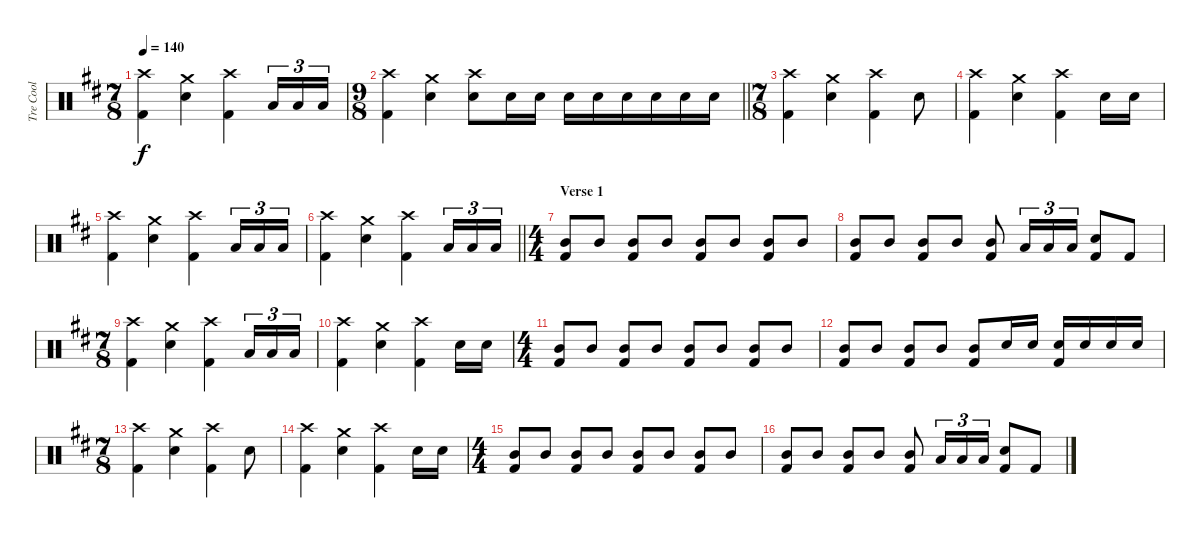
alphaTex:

\track ("Tre Cool" "Tre Cool") {instrument percussion}
\staff {score}
\articulation defaults
\ts (7 8)
\tempo 140
\clef neutral
\ks d
("Crash high (hit)" "Kick (hit) 2").4{dy f} ("Crash medium (hit)" "Electric Snare (hit)").4 ("Crash high (hit)" "Kick (hit) 2").4 "Low Tom (hit)".16{tu (3 2)} "Low Tom (hit)".16{tu (3 2)} "Low Tom (hit)".16{tu (3 2)} |
\ts (9 8)
\barLineRight lightlight
("Crash high (hit)" "Kick (hit) 2").4 ("Crash medium (hit)" "Electric Snare (hit)").4 ("Crash high (hit)" "Electric Snare (hit)").8 "Electric Snare (hit)".16 "Electric Snare (hit)".16 "Electric Snare (hit)".16 "Electric Snare (hit)".16 "Electric Snare (hit)".16 "Electric Snare (hit)".16 "Electric Snare (hit)".16 "Electric Snare (hit)".16 |
\ts (7 8)
("Crash high (hit)" "Kick (hit) 2").4 ("Crash medium (hit)" "Electric Snare (hit)").4 ("Crash high (hit)" "Kick (hit) 2").4 "Electric Snare (hit)".8 |
("Crash high (hit)" "Kick (hit) 2").4 ("Crash medium (hit)" "Electric Snare (hit)").4 ("Crash high (hit)" "Kick (hit) 2").4 "Electric Snare (hit)".16 "Electric Snare (hit)".16 |
("Crash high (hit)" "Kick (hit) 2").4 ("Crash medium (hit)" "Electric Snare (hit)").4 ("Crash high (hit)" "Kick (hit) 2").4 "Low Tom (hit)".16{tu (3 2)} "Low Tom (hit)".16{tu (3 2)} "Low Tom (hit)".16{tu (3 2)} |
\barLineRight lightlight
("Crash high (hit)" "Kick (hit) 2").4 ("Crash medium (hit)" "Electric Snare (hit)").4 ("Crash high (hit)" "Kick (hit) 2").4 "Low Tom (hit)".16{tu (3 2)} "Low Tom (hit)".16{tu (3 2)} "Low Tom (hit)".16{tu (3 2)} |
\ts (4 4)
\section ("" "Verse 1")
("Mid Tom (hit)" "Kick (hit) 2").8 "Mid Tom (hit)".8 ("Mid Tom (hit)" "Kick (hit) 2").8 "Mid Tom (hit)".8 ("Mid Tom (hit)" "Kick (hit) 2").8 "Mid Tom (hit)".8 ("Mid Tom (hit)" "Kick (hit) 2").8 "Mid Tom (hit)".8 |
("Mid Tom (hit)" "Kick (hit) 2").8 "Mid Tom (hit)".8 ("Mid Tom (hit)" "Kick (hit) 2").8 "Mid Tom (hit)".8 ("Mid Tom (hit)" "Kick (hit) 2").8 "Low Tom (hit)".16{tu (3 2)} "Low Tom (hit)".16{tu (3 2)} "Low Tom (hit)".16{tu (3 2)} ("Electric Snare (hit)" "Kick (hit) 2").8 "Kick (hit) 2".8 |
\ts (7 8)
("Crash high (hit)" "Kick (hit) 2").4 ("Crash medium (hit)" "Electric Snare (hit)").4 ("Crash high (hit)" "Kick (hit) 2").4 "Low Tom (hit)".16{tu (3 2)} "Low Tom (hit)".16{tu (3 2)} "Low Tom (hit)".16{tu (3 2)} |
("Crash high (hit)" "Kick (hit) 2").4 ("Crash medium (hit)" "Electric Snare (hit)").4 ("Crash high (hit)" "Kick (hit) 2").4 "Electric Snare (hit)".16 "Electric Snare (hit)".16 |
\ts (4 4)
("Mid Tom (hit)" "Kick (hit) 2").8 "Mid Tom (hit)".8 ("Mid Tom (hit)" "Kick (hit) 2").8 "Mid Tom (hit)".8 ("Mid Tom (hit)" "Kick (hit) 2").8 "Mid Tom (hit)".8 ("Mid Tom (hit)" "Kick (hit) 2").8 "Mid Tom (hit)".8 |
("Mid Tom (hit)" "Kick (hit) 2").8 "Mid Tom (hit)".8 ("Mid Tom (hit)" "Kick (hit) 2").8 "Mid Tom (hit)".8 ("Mid Tom (hit)" "Kick (hit) 2").8 "Electric Snare (hit)".16 "Electric Snare (hit)".16 ("Electric Snare (hit)" "Kick (hit) 2").16 "Electric Snare (hit)".16 "Electric Snare (hit)".16 "Electric Snare (hit)".16 |
\ts (7 8)
("Crash high (hit)" "Kick (hit) 2").4 ("Crash medium (hit)" "Electric Snare (hit)").4 ("Crash high (hit)" "Kick (hit) 2").4 "Electric Snare (hit)".8 |
("Crash high (hit)" "Kick (hit) 2").4 ("Crash medium (hit)" "Electric Snare (hit)").4 ("Crash high (hit)" "Kick (hit) 2").4 "Electric Snare (hit)".16 "Electric Snare (hit)".16 |
\ts (4 4)
("Mid Tom (hit)" "Kick (hit) 2").8 "Mid Tom (hit)".8 ("Mid Tom (hit)" "Kick (hit) 2").8 "Mid Tom (hit)".8 ("Mid Tom (hit)" "Kick (hit) 2").8 "Mid Tom (hit)".8 ("Mid Tom (hit)" "Kick (hit) 2").8 "Mid Tom (hit)".8 |
("Mid Tom (hit)" "Kick (hit) 2").8 "Mid Tom (hit)".8 ("Mid Tom (hit)" "Kick (hit) 2").8 "Mid Tom (hit)".8 ("Mid Tom (hit)" "Kick (hit) 2").8 "Low Tom (hit)".16{tu (3 2)} "Low Tom (hit)".16{tu (3 2)} "Low Tom (hit)".16{tu (3 2)} ("Electric Snare (hit)" "Kick (hit) 2").8 "Kick (hit) 2".8
